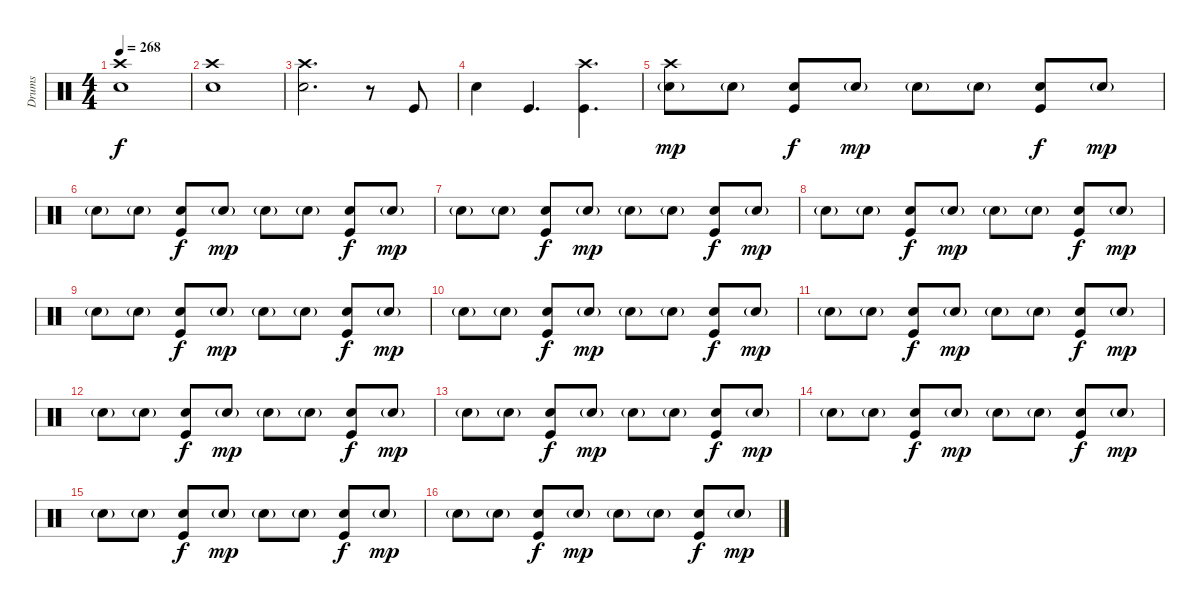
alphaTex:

\track ("Drums" "Drums") {instrument percussion}
\staff {score}
\articulation defaults
\ts (4 4)
\tempo 268
\clef neutral
\ks c
("Crash high (hit)" "Electric Snare (hit)").1{dy f} |
("Crash high (hit)" "Electric Snare (hit)").1 |
("Crash high (hit)" "Electric Snare (hit)").2{d} r.8 "Kick (hit)".8 |
"Electric Snare (hit)".4 "Kick (hit)".4{d} ("Crash high (hit)" "Kick (hit)").4{d} |
("Crash high (hit)" "Electric Snare (hit)"{g}).8{dy mp} "Electric Snare (hit)"{g}.8 ("Electric Snare (hit)" "Kick (hit)").8{dy f} "Electric Snare (hit)"{g}.8{dy mp} "Electric Snare (hit)"{g}.8 "Electric Snare (hit)"{g}.8 ("Electric Snare (hit)" "Kick (hit)").8{dy f} "Electric Snare (hit)"{g}.8{dy mp} |
"Electric Snare (hit)"{g}.8 "Electric Snare (hit)"{g}.8 ("Electric Snare (hit)" "Kick (hit)").8{dy f} "Electric Snare (hit)"{g}.8{dy mp} "Electric Snare (hit)"{g}.8 "Electric Snare (hit)"{g}.8 ("Electric Snare (hit)" "Kick (hit)").8{dy f} "Electric Snare (hit)"{g}.8{dy mp} |
"Electric Snare (hit)"{g}.8 "Electric Snare (hit)"{g}.8 ("Electric Snare (hit)" "Kick (hit)").8{dy f} "Electric Snare (hit)"{g}.8{dy mp} "Electric Snare (hit)"{g}.8 "Electric Snare (hit)"{g}.8 ("Electric Snare (hit)" "Kick (hit)").8{dy f} "Electric Snare (hit)"{g}.8{dy mp} |
"Electric Snare (hit)"{g}.8 "Electric Snare (hit)"{g}.8 ("Electric Snare (hit)" "Kick (hit)").8{dy f} "Electric Snare (hit)"{g}.8{dy mp} "Electric Snare (hit)"{g}.8 "Electric Snare (hit)"{g}.8 ("Electric Snare (hit)" "Kick (hit)").8{dy f} "Electric Snare (hit)"{g}.8{dy mp} |
"Electric Snare (hit)"{g}.8 "Electric Snare (hit)"{g}.8 ("Electric Snare (hit)" "Kick (hit)").8{dy f} "Electric Snare (hit)"{g}.8{dy mp} "Electric Snare (hit)"{g}.8 "Electric Snare (hit)"{g}.8 ("Electric Snare (hit)" "Kick (hit)").8{dy f} "Electric Snare (hit)"{g}.8{dy mp} |
"Electric Snare (hit)"{g}.8 "Electric Snare (hit)"{g}.8 ("Electric Snare (hit)" "Kick (hit)").8{dy f} "Electric Snare (hit)"{g}.8{dy mp} "Electric Snare (hit)"{g}.8 "Electric Snare (hit)"{g}.8 ("Electric Snare (hit)" "Kick (hit)").8{dy f} "Electric Snare (hit)"{g}.8{dy mp} |
"Electric Snare (hit)"{g}.8 "Electric Snare (hit)"{g}.8 ("Electric Snare (hit)" "Kick (hit)").8{dy f} "Electric Snare (hit)"{g}.8{dy mp} "Electric Snare (hit)"{g}.8 "Electric Snare (hit)"{g}.8 ("Electric Snare (hit)" "Kick (hit)").8{dy f} "Electric Snare (hit)"{g}.8{dy mp} |
"Electric Snare (hit)"{g}.8 "Electric Snare (hit)"{g}.8 ("Electric Snare (hit)" "Kick (hit)").8{dy f} "Electric Snare (hit)"{g}.8{dy mp} "Electric Snare (hit)"{g}.8 "Electric Snare (hit)"{g}.8 ("Electric Snare (hit)" "Kick (hit)").8{dy f} "Electric Snare (hit)"{g}.8{dy mp} |
"Electric Snare (hit)"{g}.8 "Electric Snare (hit)"{g}.8 ("Electric Snare (hit)" "Kick (hit)").8{dy f} "Electric Snare (hit)"{g}.8{dy mp} "Electric Snare (hit)"{g}.8 "Electric Snare (hit)"{g}.8 ("Electric Snare (hit)" "Kick (hit)").8{dy f} "Electric Snare (hit)"{g}.8{dy mp} |
"Electric Snare (hit)"{g}.8 "Electric Snare (hit)"{g}.8 ("Electric Snare (hit)" "Kick (hit)").8{dy f} "Electric Snare (hit)"{g}.8{dy mp} "Electric Snare (hit)"{g}.8 "Electric Snare (hit)"{g}.8 ("Electric Snare (hit)" "Kick (hit)").8{dy f} "Electric Snare (hit)"{g}.8{dy mp} |
"Electric Snare (hit)"{g}.8 "Electric Snare (hit)"{g}.8 ("Electric Snare (hit)" "Kick (hit)").8{dy f} "Electric Snare (hit)"{g}.8{dy mp} "Electric Snare (hit)"{g}.8 "Electric Snare (hit)"{g}.8 ("Electric Snare (hit)" "Kick (hit)").8{dy f} "Electric Snare (hit)"{g}.8{dy mp} |
"Electric Snare (hit)"{g}.8 "Electric Snare (hit)"{g}.8 ("Electric Snare (hit)" "Kick (hit)").8{dy f} "Electric Snare (hit)"{g}.8{dy mp} "Electric Snare (hit)"{g}.8 "Electric Snare (hit)"{g}.8 ("Electric Snare (hit)" "Kick (hit)").8{dy f} "Electric Snare (hit)"{g}.8{dy mp}
